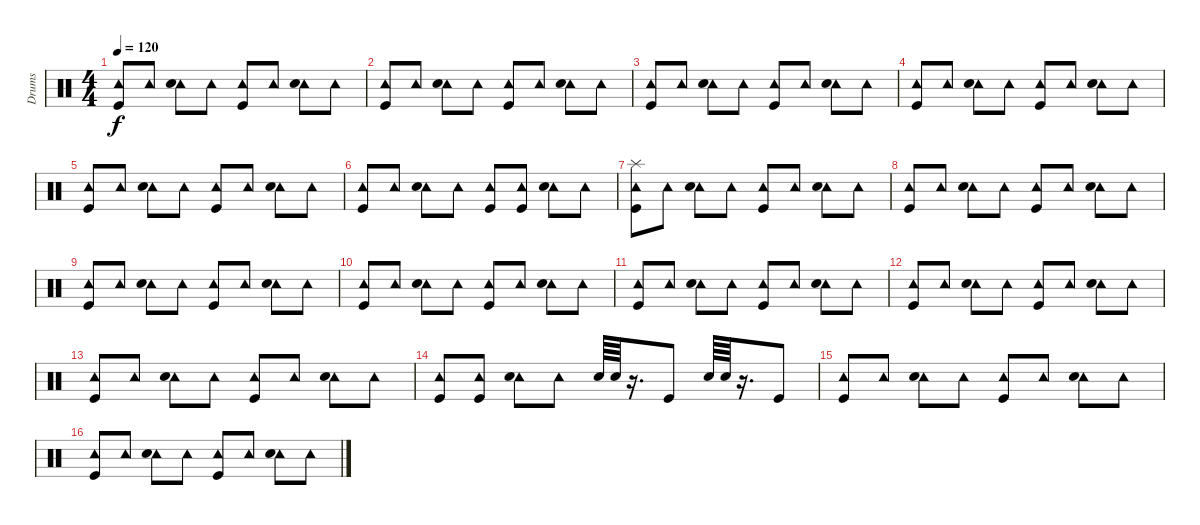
\track ("Drums" "Drums") {instrument percussion}
\staff {score}
\articulation defaults
\ts (4 4)
\tempo 120
\clef neutral
\ks c
("Tambourine (hit)" "Kick (hit)").8{dy f} "Tambourine (hit)".8 ("Tambourine (hit)" "Snare (hit) 2").8 "Tambourine (hit)".8 ("Tambourine (hit)" "Kick (hit)").8 "Tambourine (hit)".8 ("Tambourine (hit)" "Snare (hit) 2").8 "Tambourine (hit)".8 |
("Tambourine (hit)" "Kick (hit)").8 "Tambourine (hit)".8 ("Tambourine (hit)" "Snare (hit) 2").8 "Tambourine (hit)".8 ("Tambourine (hit)" "Kick (hit)").8 "Tambourine (hit)".8 ("Tambourine (hit)" "Snare (hit) 2").8 "Tambourine (hit)".8 |
("Tambourine (hit)" "Kick (hit)").8 "Tambourine (hit)".8 ("Tambourine (hit)" "Snare (hit) 2").8 "Tambourine (hit)".8 ("Tambourine (hit)" "Kick (hit)").8 "Tambourine (hit)".8 ("Tambourine (hit)" "Snare (hit) 2").8 "Tambourine (hit)".8 |
("Tambourine (hit)" "Kick (hit)").8 "Tambourine (hit)".8 ("Tambourine (hit)" "Snare (hit) 2").8 "Tambourine (hit)".8 ("Tambourine (hit)" "Kick (hit)").8 "Tambourine (hit)".8 ("Tambourine (hit)" "Snare (hit) 2").8 "Tambourine (hit)".8 |
("Tambourine (hit)" "Kick (hit)").8 "Tambourine (hit)".8 ("Tambourine (hit)" "Snare (hit) 2").8 "Tambourine (hit)".8 ("Tambourine (hit)" "Kick (hit)").8 "Tambourine (hit)".8 ("Tambourine (hit)" "Snare (hit) 2").8 "Tambourine (hit)".8 |
("Tambourine (hit)" "Kick (hit)").8 "Tambourine (hit)".8 ("Tambourine (hit)" "Snare (hit) 2").8 "Tambourine (hit)".8 ("Tambourine (hit)" "Kick (hit)").8 ("Tambourine (hit)" "Kick (hit)").8 ("Tambourine (hit)" "Snare (hit) 2").8 "Tambourine (hit)".8 |
("Tambourine (hit)" "Kick (hit)" "Splash (hit)").8 "Tambourine (hit)".8 ("Tambourine (hit)" "Snare (hit) 2").8 "Tambourine (hit)".8 ("Tambourine (hit)" "Kick (hit)").8 "Tambourine (hit)".8 ("Tambourine (hit)" "Snare (hit) 2").8 "Tambourine (hit)".8 |
("Tambourine (hit)" "Kick (hit)").8 "Tambourine (hit)".8 ("Tambourine (hit)" "Snare (hit) 2").8 "Tambourine (hit)".8 ("Tambourine (hit)" "Kick (hit)").8 "Tambourine (hit)".8 ("Tambourine (hit)" "Snare (hit) 2").8 "Tambourine (hit)".8 |
("Tambourine (hit)" "Kick (hit)").8 "Tambourine (hit)".8 ("Tambourine (hit)" "Snare (hit) 2").8 "Tambourine (hit)".8 ("Tambourine (hit)" "Kick (hit)").8 "Tambourine (hit)".8 ("Tambourine (hit)" "Snare (hit) 2").8 "Tambourine (hit)".8 |
("Tambourine (hit)" "Kick (hit)").8 "Tambourine (hit)".8 ("Tambourine (hit)" "Snare (hit) 2").8 "Tambourine (hit)".8 ("Tambourine (hit)" "Kick (hit)").8 "Tambourine (hit)".8 ("Tambourine (hit)" "Snare (hit) 2").8 "Tambourine (hit)".8 |
("Tambourine (hit)" "Kick (hit)").8 "Tambourine (hit)".8 ("Tambourine (hit)" "Snare (hit) 2").8 "Tambourine (hit)".8 ("Tambourine (hit)" "Kick (hit)").8 "Tambourine (hit)".8 ("Tambourine (hit)" "Snare (hit) 2").8 "Tambourine (hit)".8 |
("Tambourine (hit)" "Kick (hit)").8 "Tambourine (hit)".8 ("Tambourine (hit)" "Snare (hit) 2").8 "Tambourine (hit)".8 ("Tambourine (hit)" "Kick (hit)").8 "Tambourine (hit)".8 ("Tambourine (hit)" "Snare (hit) 2").8 "Tambourine (hit)".8 |
("Tambourine (hit)" "Kick (hit)").8 "Tambourine (hit)".8 ("Tambourine (hit)" "Snare (hit) 2").8 "Tambourine (hit)".8 ("Tambourine (hit)" "Kick (hit)").8 "Tambourine (hit)".8 ("Tambourine (hit)" "Snare (hit) 2").8 "Tambourine (hit)".8 |
("Tambourine (hit)" "Kick (hit)").8 ("Tambourine (hit)" "Kick (hit)").8 ("Tambourine (hit)" "Snare (hit) 2").8 "Tambourine (hit)".8 "Snare (hit) 2".64 "Snare (hit) 2".64 r.16{d} "Kick (hit)".8 "Snare (hit) 2".64 "Snare (hit) 2".64 r.16{d} "Kick (hit)".8 |
("Tambourine (hit)" "Kick (hit)").8 "Tambourine (hit)".8 ("Tambourine (hit)" "Snare (hit) 2").8 "Tambourine (hit)".8 ("Tambourine (hit)" "Kick (hit)").8 "Tambourine (hit)".8 ("Tambourine (hit)" "Snare (hit) 2").8 "Tambourine (hit)".8 |
("Tambourine (hit)" "Kick (hit)").8 "Tambourine (hit)".8 ("Tambourine (hit)" "Snare (hit) 2").8 "Tambourine (hit)".8 ("Tambourine (hit)" "Kick (hit)").8 "Tambourine (hit)".8 ("Tambourine (hit)" "Snare (hit) 2").8 "Tambourine (hit)".8
